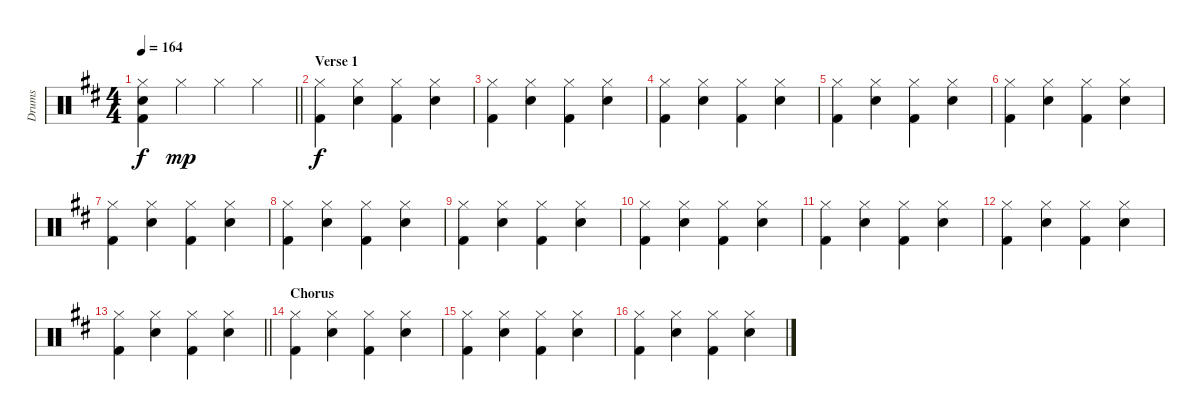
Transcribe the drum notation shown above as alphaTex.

\track ("Drums" "Drums") {instrument percussion}
\staff {score}
\articulation defaults
\ts (4 4)
\tempo 164
\clef neutral
\barLineRight lightlight
\ks d
("Hi-Hat (closed)" "Snare (hit) 2" "Kick (hit) 2").4{dy f} "Hi-Hat (closed)".4{dy mp} "Hi-Hat (closed)".4 "Hi-Hat (closed)".4 |
\section ("" "Verse 1")
("Hi-Hat (closed)" "Kick (hit) 2").4{dy f} ("Hi-Hat (closed)" "Snare (hit) 2").4 ("Hi-Hat (closed)" "Kick (hit) 2").4 ("Hi-Hat (closed)" "Snare (hit) 2").4 |
("Hi-Hat (closed)" "Kick (hit) 2").4 ("Hi-Hat (closed)" "Snare (hit) 2").4 ("Hi-Hat (closed)" "Kick (hit) 2").4 ("Hi-Hat (closed)" "Snare (hit) 2").4 |
("Hi-Hat (closed)" "Kick (hit) 2").4 ("Hi-Hat (closed)" "Snare (hit) 2").4 ("Hi-Hat (closed)" "Kick (hit) 2").4 ("Hi-Hat (closed)" "Snare (hit) 2").4 |
("Hi-Hat (closed)" "Kick (hit) 2").4 ("Hi-Hat (closed)" "Snare (hit) 2").4 ("Hi-Hat (closed)" "Kick (hit) 2").4 ("Hi-Hat (closed)" "Snare (hit) 2").4 |
("Hi-Hat (closed)" "Kick (hit) 2").4 ("Hi-Hat (closed)" "Snare (hit) 2").4 ("Hi-Hat (closed)" "Kick (hit) 2").4 ("Hi-Hat (closed)" "Snare (hit) 2").4 |
("Hi-Hat (closed)" "Kick (hit) 2").4 ("Hi-Hat (closed)" "Snare (hit) 2").4 ("Hi-Hat (closed)" "Kick (hit) 2").4 ("Hi-Hat (closed)" "Snare (hit) 2").4 |
("Hi-Hat (closed)" "Kick (hit) 2").4 ("Hi-Hat (closed)" "Snare (hit) 2").4 ("Hi-Hat (closed)" "Kick (hit) 2").4 ("Hi-Hat (closed)" "Snare (hit) 2").4 |
("Hi-Hat (closed)" "Kick (hit) 2").4 ("Hi-Hat (closed)" "Snare (hit) 2").4 ("Hi-Hat (closed)" "Kick (hit) 2").4 ("Hi-Hat (closed)" "Snare (hit) 2").4 |
("Hi-Hat (closed)" "Kick (hit) 2").4 ("Hi-Hat (closed)" "Snare (hit) 2").4 ("Hi-Hat (closed)" "Kick (hit) 2").4 ("Hi-Hat (closed)" "Snare (hit) 2").4 |
("Hi-Hat (closed)" "Kick (hit) 2").4 ("Hi-Hat (closed)" "Snare (hit) 2").4 ("Hi-Hat (closed)" "Kick (hit) 2").4 ("Hi-Hat (closed)" "Snare (hit) 2").4 |
("Hi-Hat (closed)" "Kick (hit) 2").4 ("Hi-Hat (closed)" "Snare (hit) 2").4 ("Hi-Hat (closed)" "Kick (hit) 2").4 ("Hi-Hat (closed)" "Snare (hit) 2").4 |
\barLineRight lightlight
("Hi-Hat (closed)" "Kick (hit) 2").4 ("Hi-Hat (closed)" "Snare (hit) 2").4 ("Hi-Hat (closed)" "Kick (hit) 2").4 ("Hi-Hat (closed)" "Snare (hit) 2").4 |
\section ("" "Chorus")
("Hi-Hat (closed)" "Kick (hit) 2").4 ("Hi-Hat (closed)" "Snare (hit) 2").4 ("Hi-Hat (closed)" "Kick (hit) 2").4 ("Hi-Hat (closed)" "Snare (hit) 2").4 |
("Hi-Hat (closed)" "Kick (hit) 2").4 ("Hi-Hat (closed)" "Snare (hit) 2").4 ("Hi-Hat (closed)" "Kick (hit) 2").4 ("Hi-Hat (closed)" "Snare (hit) 2").4 |
("Hi-Hat (closed)" "Kick (hit) 2").4 ("Hi-Hat (closed)" "Snare (hit) 2").4 ("Hi-Hat (closed)" "Kick (hit) 2").4 ("Hi-Hat (closed)" "Snare (hit) 2").4
